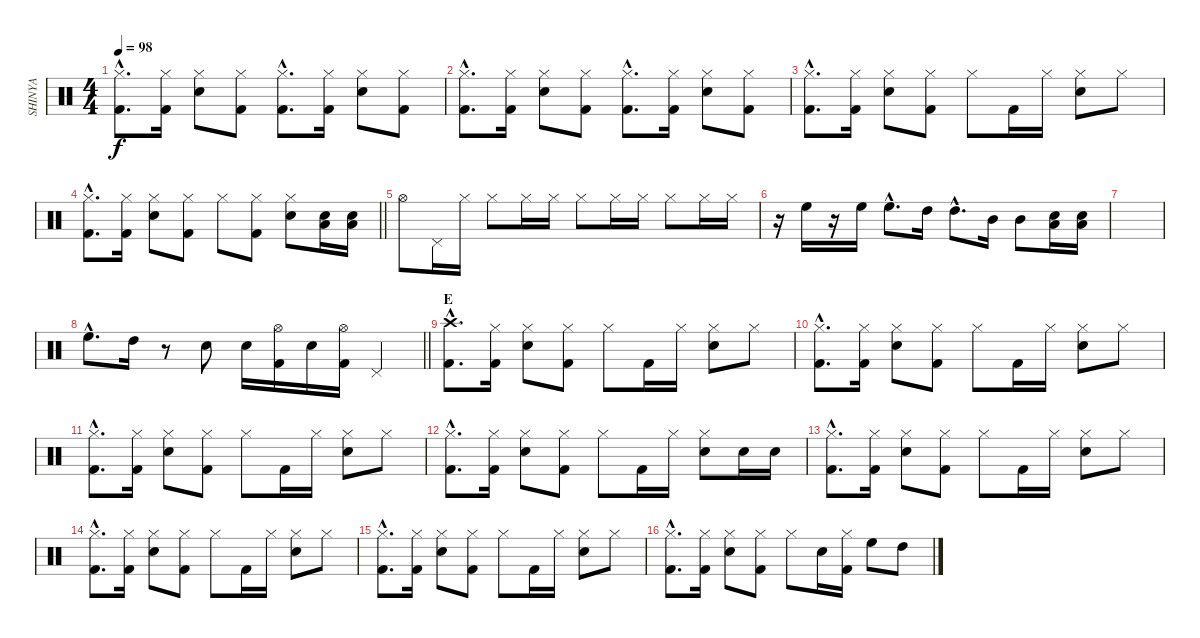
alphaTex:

\track ("SHINYA" "SHINYA") {instrument percussion}
\staff {score}
\articulation defaults
\ts (4 4)
\tempo 98
\clef neutral
\ks c
("Hi-Hat (closed)"{hac} "Kick (hit) 2"{hac}).8{d dy f} ("Hi-Hat (closed)" "Kick (hit) 2").16 ("Hi-Hat (closed)" "Snare (hit) 2").8 ("Hi-Hat (closed)" "Kick (hit) 2").8 ("Hi-Hat (closed)"{hac} "Kick (hit) 2"{hac}).8{d} ("Hi-Hat (closed)" "Kick (hit) 2").16 ("Hi-Hat (closed)" "Snare (hit) 2").8 ("Hi-Hat (closed)" "Kick (hit) 2").8 |
("Hi-Hat (closed)"{hac} "Kick (hit) 2"{hac}).8{d} ("Hi-Hat (closed)" "Kick (hit) 2").16 ("Hi-Hat (closed)" "Snare (hit) 2").8 ("Hi-Hat (closed)" "Kick (hit) 2").8 ("Hi-Hat (closed)"{hac} "Kick (hit) 2"{hac}).8{d} ("Hi-Hat (closed)" "Kick (hit) 2").16 ("Hi-Hat (closed)" "Snare (hit) 2").8 ("Hi-Hat (closed)" "Kick (hit) 2").8 |
("Hi-Hat (closed)"{hac} "Kick (hit) 2"{hac}).8{d} ("Hi-Hat (closed)" "Kick (hit) 2").16 ("Hi-Hat (closed)" "Snare (hit) 2").8 ("Hi-Hat (closed)" "Kick (hit) 2").8 "Hi-Hat (closed)".8 "Kick (hit) 2".16 "Hi-Hat (closed)".16 ("Hi-Hat (closed)" "Snare (hit) 2").8 "Hi-Hat (closed)".8 |
\barLineRight lightlight
("Hi-Hat (closed)"{hac} "Kick (hit) 2"{hac}).8{d} ("Hi-Hat (closed)" "Kick (hit) 2").16 ("Hi-Hat (closed)" "Snare (hit) 2").8 ("Hi-Hat (closed)" "Kick (hit) 2").8 "Hi-Hat (closed)".8 ("Hi-Hat (closed)" "Kick (hit) 2").8 ("Hi-Hat (closed)" "Snare (hit) 2").8 ("Snare (hit) 2" "Low Tom (hit)").16 ("Snare (hit) 2" "Low Tom (hit)").16 |
"Hi-Hat (open)".8 "Pedal Hi-Hat (hit)".16 "Hi-Hat (closed)".16 "Hi-Hat (closed)".8 "Hi-Hat (closed)".16 "Hi-Hat (closed)".16 "Hi-Hat (closed)".8 "Hi-Hat (closed)".16 "Hi-Hat (closed)".16 "Hi-Hat (closed)".8 "Hi-Hat (closed)".16 "Hi-Hat (closed)".16 |
r.16 "High Floor Tom (hit)".16 r.16 "High Floor Tom (hit)".16 "High Floor Tom (hit)"{hac}.8{d} "High Tom (hit)".16 "High Tom (hit)"{hac}.8{d} "Mid Tom (hit)".16 "Mid Tom (hit)".8 ("Low Tom (hit)" "Snare (hit) 2").16 ("Low Tom (hit)" "Snare (hit) 2").16 |
|
\barLineRight lightlight "High Floor Tom (hit)"{hac}.8{d} "High Tom (hit)".16
r.8 "Snare (hit) 2".8 "Snare (hit) 2".16 ("Hi-Hat (open)" "Kick (hit) 2").16 "Snare (hit) 2".16 ("Hi-Hat (open)" "Kick (hit) 2").16 "Pedal Hi-Hat (hit)".4 |
\section ("" "E")
("Crash high (hit)"{hac} "Kick (hit) 2"{hac}).8{d} ("Hi-Hat (closed)" "Kick (hit) 2").16 ("Hi-Hat (closed)" "Snare (hit) 2").8 ("Hi-Hat (closed)" "Kick (hit) 2").8 "Hi-Hat (closed)".8 "Kick (hit) 2".16 "Hi-Hat (closed)".16 ("Hi-Hat (closed)" "Snare (hit) 2").8 "Hi-Hat (closed)".8 |
("Hi-Hat (closed)"{hac} "Kick (hit) 2"{hac}).8{d} ("Hi-Hat (closed)" "Kick (hit) 2").16 ("Hi-Hat (closed)" "Snare (hit) 2").8 ("Hi-Hat (closed)" "Kick (hit) 2").8 "Hi-Hat (closed)".8 "Kick (hit) 2".16 "Hi-Hat (closed)".16 ("Hi-Hat (closed)" "Snare (hit) 2").8 "Hi-Hat (closed)".8 |
("Hi-Hat (closed)"{hac} "Kick (hit) 2"{hac}).8{d} ("Hi-Hat (closed)" "Kick (hit) 2").16 ("Hi-Hat (closed)" "Snare (hit) 2").8 ("Hi-Hat (closed)" "Kick (hit) 2").8 "Hi-Hat (closed)".8 "Kick (hit) 2".16 "Hi-Hat (closed)".16 ("Hi-Hat (closed)" "Snare (hit) 2").8 "Hi-Hat (closed)".8 |
("Hi-Hat (closed)"{hac} "Kick (hit) 2"{hac}).8{d} ("Hi-Hat (closed)" "Kick (hit) 2").16 ("Hi-Hat (closed)" "Snare (hit) 2").8 ("Hi-Hat (closed)" "Kick (hit) 2").8 "Hi-Hat (closed)".8 "Kick (hit) 2".16 "Hi-Hat (closed)".16 ("Hi-Hat (closed)" "Snare (hit) 2").8 "Snare (hit) 2".16 "Snare (hit) 2".16 |
("Hi-Hat (closed)"{hac} "Kick (hit) 2"{hac}).8{d} ("Hi-Hat (closed)" "Kick (hit) 2").16 ("Hi-Hat (closed)" "Snare (hit) 2").8 ("Hi-Hat (closed)" "Kick (hit) 2").8 "Hi-Hat (closed)".8 "Kick (hit) 2".16 "Hi-Hat (closed)".16 ("Hi-Hat (closed)" "Snare (hit) 2").8 "Hi-Hat (closed)".8 |
("Hi-Hat (closed)"{hac} "Kick (hit) 2"{hac}).8{d} ("Hi-Hat (closed)" "Kick (hit) 2").16 ("Hi-Hat (closed)" "Snare (hit) 2").8 ("Hi-Hat (closed)" "Kick (hit) 2").8 "Hi-Hat (closed)".8 "Kick (hit) 2".16 "Hi-Hat (closed)".16 ("Hi-Hat (closed)" "Snare (hit) 2").8 "Hi-Hat (closed)".8 |
("Hi-Hat (closed)"{hac} "Kick (hit) 2"{hac}).8{d} ("Hi-Hat (closed)" "Kick (hit) 2").16 ("Hi-Hat (closed)" "Snare (hit) 2").8 ("Hi-Hat (closed)" "Kick (hit) 2").8 "Hi-Hat (closed)".8 "Kick (hit) 2".16 "Hi-Hat (closed)".16 ("Hi-Hat (closed)" "Snare (hit) 2").8 "Hi-Hat (closed)".8 |
("Hi-Hat (closed)"{hac} "Kick (hit) 2"{hac}).8{d} ("Hi-Hat (closed)" "Kick (hit) 2").16 ("Hi-Hat (closed)" "Snare (hit) 2").8 ("Hi-Hat (closed)" "Kick (hit) 2").8 "Hi-Hat (closed)".8 "Snare (hit) 2".16 ("Hi-Hat (closed)" "Kick (hit) 2").16 "High Floor Tom (hit)".8 "High Tom (hit)".8
